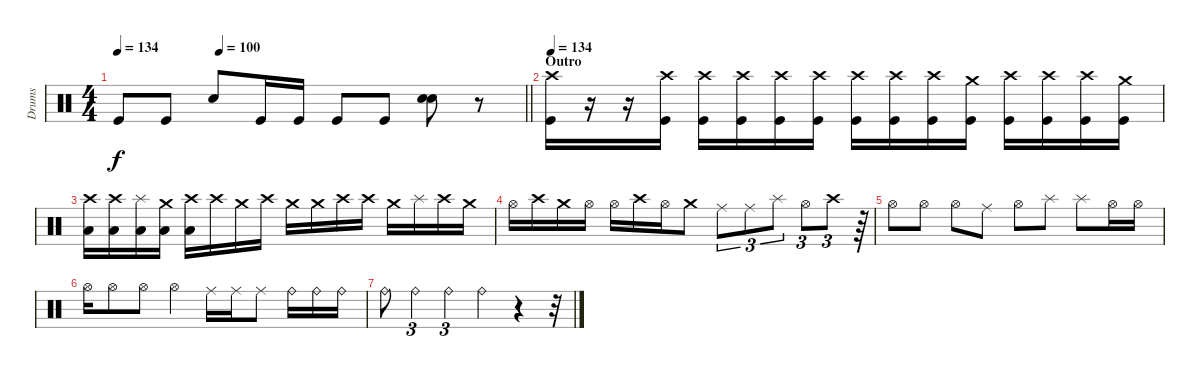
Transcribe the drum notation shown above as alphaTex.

\track ("Drums" "Drums") {instrument percussion}
\staff {score}
\articulation defaults
\ts (4 4)
\tempo 134
\tempo (100 0.25)
\clef neutral
\barLineRight lightlight
\ks c "Kick (hit)".8{dy f} "Kick (hit)".8 "Electric Snare (hit)".8 "Kick (hit)".16 "Kick (hit)".16 "Kick (hit)".8 "Kick (hit)".8
("Snare (hit) 2" "Electric Snare (hit)").8 r.8 |
\section ("" "Outro")
\tempo 134
("Crash high (hit)" "Kick (hit)").16 r.16 r.16 ("Crash high (hit)" "Kick (hit)").16 ("Crash high (hit)" "Kick (hit)").16 ("Crash high (hit)" "Kick (hit)").16 ("Crash high (hit)" "Kick (hit)").16 ("Crash high (hit)" "Kick (hit)").16 ("Crash high (hit)" "Kick (hit)").16 ("Crash high (hit)" "Kick (hit)").16 ("Crash high (hit)" "Kick (hit)").16 ("Crash medium (hit)" "Kick (hit)").16 ("Crash high (hit)" "Kick (hit)").16 ("Crash high (hit)" "Kick (hit)").16 ("Crash high (hit)" "Kick (hit)").16 ("Crash medium (hit)" "Kick (hit)").16 |
("Crash high (hit)" "Low Floor Tom (hit)").16 ("Crash high (hit)" "Low Floor Tom (hit)").16 ("Splash (hit)" "Low Floor Tom (hit)").16 ("Crash medium (hit)" "Low Floor Tom (hit)").16 ("Crash high (hit)" "Low Floor Tom (hit)").16 "Crash high (hit)".16 "Crash medium (hit)".16 "Crash high (hit)".16 "Crash medium (hit)".16 "Crash medium (hit)".16 "Crash high (hit)".16 "Crash high (hit)".16 "Crash medium (hit)".16 "Splash (hit)".16 "Crash high (hit)".16 "Crash medium (hit)".16 |
"Hi-Hat (open)".16 "Crash high (hit)".16 "Crash medium (hit)".16 "Hi-Hat (open)".16 "Hi-Hat (open)".16 "Crash high (hit)".16 "Hi-Hat (open)".16 "Crash medium (hit)".8 "Ride (middle)".8{tu (3 2)} "Ride (middle)".8{tu (3 2)} "Splash (hit)".8{tu (3 2)} "Hi-Hat (open)".8{tu (3 2)} "Crash high (hit)".8{tu (3 2)} r.64 |
"Hi-Hat (open)".8 "Hi-Hat (open)".8 "Hi-Hat (open)".8 "Ride (middle)".8 "Hi-Hat (open)".8 "Splash (hit)".8 "Splash (hit)".8 "Hi-Hat (open)".16 "Hi-Hat (open)".16 |
"Hi-Hat (open)".16 "Hi-Hat (open)".8 "Hi-Hat (open)".8 "Hi-Hat (open)".4 "Ride (middle)".16 "Ride (middle)".16 "Ride (middle)".8 "Ride (bell)".16 "Ride (bell)".16 "Ride (bell)".16 |
"Ride (bell)".8 "Ride (bell)".4{tu (3 2)} "Ride (bell)".4{tu (3 2)} "Ride (bell)".4 r.4 r.32
